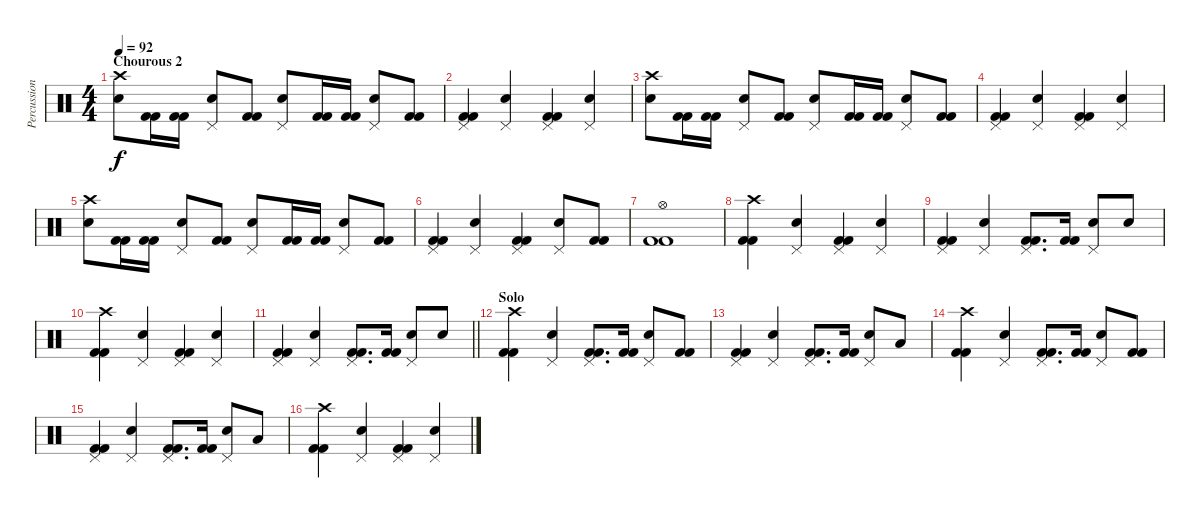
\track ("Percussion" "Percussion") {instrument percussion}
\staff {score}
\articulation defaults
\ts (4 4)
\section ("" "Chourous 2")
\tempo 92
\clef neutral
\ks c
("Crash high (hit)" "Electric Snare (hit)").8{dy f} ("Kick (hit) 2" "Kick (hit) 2").16 ("Kick (hit) 2" "Kick (hit) 2").16 ("Pedal Hi-Hat (hit)" "Electric Snare (hit)").8 ("Kick (hit) 2" "Kick (hit) 2").8 ("Pedal Hi-Hat (hit)" "Electric Snare (hit)").8 ("Kick (hit) 2" "Kick (hit) 2").16 ("Kick (hit) 2" "Kick (hit) 2").16 ("Pedal Hi-Hat (hit)" "Electric Snare (hit)").8 ("Kick (hit) 2" "Kick (hit) 2").8 |
("Pedal Hi-Hat (hit)" "Kick (hit) 2" "Kick (hit) 2").4 ("Pedal Hi-Hat (hit)" "Electric Snare (hit)").4 ("Pedal Hi-Hat (hit)" "Kick (hit) 2" "Kick (hit) 2").4 ("Pedal Hi-Hat (hit)" "Electric Snare (hit)").4 |
("Crash high (hit)" "Electric Snare (hit)").8 ("Kick (hit) 2" "Kick (hit) 2").16 ("Kick (hit) 2" "Kick (hit) 2").16 ("Pedal Hi-Hat (hit)" "Electric Snare (hit)").8 ("Kick (hit) 2" "Kick (hit) 2").8 ("Pedal Hi-Hat (hit)" "Electric Snare (hit)").8 ("Kick (hit) 2" "Kick (hit) 2").16 ("Kick (hit) 2" "Kick (hit) 2").16 ("Pedal Hi-Hat (hit)" "Electric Snare (hit)").8 ("Kick (hit) 2" "Kick (hit) 2").8 |
("Pedal Hi-Hat (hit)" "Kick (hit) 2" "Kick (hit) 2").4 ("Pedal Hi-Hat (hit)" "Electric Snare (hit)").4 ("Pedal Hi-Hat (hit)" "Kick (hit) 2" "Kick (hit) 2").4 ("Pedal Hi-Hat (hit)" "Electric Snare (hit)").4 |
("Crash high (hit)" "Electric Snare (hit)").8 ("Kick (hit) 2" "Kick (hit) 2").16 ("Kick (hit) 2" "Kick (hit) 2").16 ("Pedal Hi-Hat (hit)" "Electric Snare (hit)").8 ("Kick (hit) 2" "Kick (hit) 2").8 ("Pedal Hi-Hat (hit)" "Electric Snare (hit)").8 ("Kick (hit) 2" "Kick (hit) 2").16 ("Kick (hit) 2" "Kick (hit) 2").16 ("Pedal Hi-Hat (hit)" "Electric Snare (hit)").8 ("Kick (hit) 2" "Kick (hit) 2").8 |
("Pedal Hi-Hat (hit)" "Kick (hit) 2" "Kick (hit) 2").4 ("Pedal Hi-Hat (hit)" "Electric Snare (hit)").4 ("Pedal Hi-Hat (hit)" "Kick (hit) 2" "Kick (hit) 2").4 ("Pedal Hi-Hat (hit)" "Electric Snare (hit)").8 ("Kick (hit) 2" "Kick (hit) 2").8 |
("Hi-Hat (open)" "Kick (hit) 2" "Kick (hit) 2").1 |
("Crash high (hit)" "Kick (hit) 2" "Kick (hit) 2").4 ("Pedal Hi-Hat (hit)" "Electric Snare (hit)").4 ("Pedal Hi-Hat (hit)" "Kick (hit) 2" "Kick (hit) 2").4 ("Pedal Hi-Hat (hit)" "Electric Snare (hit)").4 |
("Pedal Hi-Hat (hit)" "Kick (hit) 2" "Kick (hit) 2").4 ("Pedal Hi-Hat (hit)" "Electric Snare (hit)").4 ("Pedal Hi-Hat (hit)" "Kick (hit) 2" "Kick (hit) 2").8{d} ("Kick (hit) 2" "Kick (hit) 2").16 ("Pedal Hi-Hat (hit)" "Electric Snare (hit)").8 "Electric Snare (hit)".8 |
("Crash high (hit)" "Kick (hit) 2" "Kick (hit) 2").4 ("Pedal Hi-Hat (hit)" "Electric Snare (hit)").4 ("Pedal Hi-Hat (hit)" "Kick (hit) 2" "Kick (hit) 2").4 ("Pedal Hi-Hat (hit)" "Electric Snare (hit)").4 |
\barLineRight lightlight
("Pedal Hi-Hat (hit)" "Kick (hit) 2" "Kick (hit) 2").4 ("Pedal Hi-Hat (hit)" "Electric Snare (hit)").4 ("Pedal Hi-Hat (hit)" "Kick (hit) 2" "Kick (hit) 2").8{d} ("Kick (hit) 2" "Kick (hit) 2").16 ("Pedal Hi-Hat (hit)" "Electric Snare (hit)").8 "Electric Snare (hit)".8 |
\section ("" "Solo")
("Crash high (hit)" "Kick (hit) 2" "Kick (hit) 2").4 ("Pedal Hi-Hat (hit)" "Electric Snare (hit)").4 ("Pedal Hi-Hat (hit)" "Kick (hit) 2" "Kick (hit) 2").8{d} ("Kick (hit) 2" "Kick (hit) 2").16 ("Pedal Hi-Hat (hit)" "Electric Snare (hit)").8 ("Kick (hit) 2" "Kick (hit) 2").8 |
("Pedal Hi-Hat (hit)" "Kick (hit) 2" "Kick (hit) 2").4 ("Pedal Hi-Hat (hit)" "Electric Snare (hit)").4 ("Pedal Hi-Hat (hit)" "Kick (hit) 2" "Kick (hit) 2").8{d} ("Kick (hit) 2" "Kick (hit) 2").16 ("Pedal Hi-Hat (hit)" "Electric Snare (hit)").8 "Low Tom (hit)".8 |
("Crash high (hit)" "Kick (hit) 2" "Kick (hit) 2").4 ("Pedal Hi-Hat (hit)" "Electric Snare (hit)").4 ("Pedal Hi-Hat (hit)" "Kick (hit) 2" "Kick (hit) 2").8{d} ("Kick (hit) 2" "Kick (hit) 2").16 ("Pedal Hi-Hat (hit)" "Electric Snare (hit)").8 ("Kick (hit) 2" "Kick (hit) 2").8 |
("Pedal Hi-Hat (hit)" "Kick (hit) 2" "Kick (hit) 2").4 ("Pedal Hi-Hat (hit)" "Electric Snare (hit)").4 ("Pedal Hi-Hat (hit)" "Kick (hit) 2" "Kick (hit) 2").8{d} ("Kick (hit) 2" "Kick (hit) 2").16 ("Pedal Hi-Hat (hit)" "Electric Snare (hit)").8 "Low Tom (hit)".8 |
("Crash high (hit)" "Kick (hit) 2" "Kick (hit) 2").4 ("Pedal Hi-Hat (hit)" "Electric Snare (hit)").4 ("Pedal Hi-Hat (hit)" "Kick (hit) 2" "Kick (hit) 2").4 ("Pedal Hi-Hat (hit)" "Electric Snare (hit)").4
